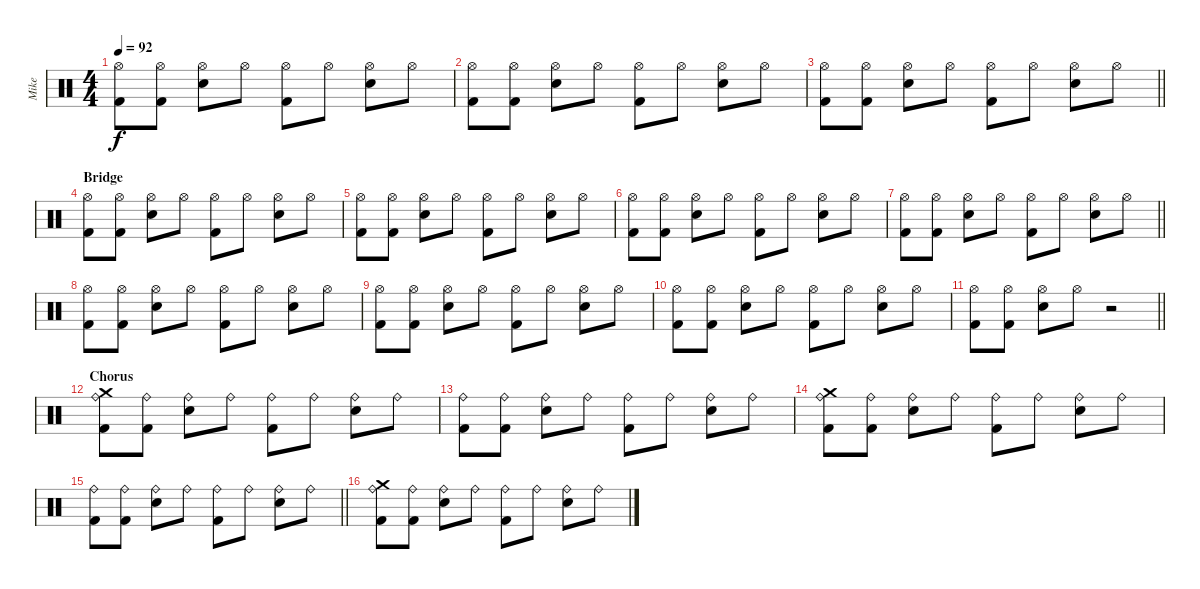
\track ("Mike" "Mike") {instrument percussion}
\staff {score}
\articulation defaults
\ts (4 4)
\tempo 92
\clef neutral
\ks c
("Kick (hit) 2" "Hi-Hat (open)").8{dy f} ("Kick (hit) 2" "Hi-Hat (open)").8 ("Electric Snare (hit)" "Hi-Hat (open)").8 "Hi-Hat (open)".8 ("Kick (hit) 2" "Hi-Hat (open)").8 "Hi-Hat (open)".8 ("Electric Snare (hit)" "Hi-Hat (open)").8 "Hi-Hat (open)".8 |
("Kick (hit) 2" "Hi-Hat (open)").8 ("Kick (hit) 2" "Hi-Hat (open)").8 ("Electric Snare (hit)" "Hi-Hat (open)").8 "Hi-Hat (open)".8 ("Kick (hit) 2" "Hi-Hat (open)").8 "Hi-Hat (open)".8 ("Electric Snare (hit)" "Hi-Hat (open)").8 "Hi-Hat (open)".8 |
\barLineRight lightlight
("Kick (hit) 2" "Hi-Hat (open)").8 ("Kick (hit) 2" "Hi-Hat (open)").8 ("Electric Snare (hit)" "Hi-Hat (open)").8 "Hi-Hat (open)".8 ("Kick (hit) 2" "Hi-Hat (open)").8 "Hi-Hat (open)".8 ("Electric Snare (hit)" "Hi-Hat (open)").8 "Hi-Hat (open)".8 |
\section ("" "Bridge")
("Kick (hit) 2" "Hi-Hat (open)").8 ("Kick (hit) 2" "Hi-Hat (open)").8 ("Electric Snare (hit)" "Hi-Hat (open)").8 "Hi-Hat (open)".8 ("Kick (hit) 2" "Hi-Hat (open)").8 "Hi-Hat (open)".8 ("Electric Snare (hit)" "Hi-Hat (open)").8 "Hi-Hat (open)".8 |
("Kick (hit) 2" "Hi-Hat (open)").8 ("Kick (hit) 2" "Hi-Hat (open)").8 ("Electric Snare (hit)" "Hi-Hat (open)").8 "Hi-Hat (open)".8 ("Kick (hit) 2" "Hi-Hat (open)").8 "Hi-Hat (open)".8 ("Electric Snare (hit)" "Hi-Hat (open)").8 "Hi-Hat (open)".8 |
("Kick (hit) 2" "Hi-Hat (open)").8 ("Kick (hit) 2" "Hi-Hat (open)").8 ("Electric Snare (hit)" "Hi-Hat (open)").8 "Hi-Hat (open)".8 ("Kick (hit) 2" "Hi-Hat (open)").8 "Hi-Hat (open)".8 ("Electric Snare (hit)" "Hi-Hat (open)").8 "Hi-Hat (open)".8 |
\barLineRight lightlight
("Kick (hit) 2" "Hi-Hat (open)").8 ("Kick (hit) 2" "Hi-Hat (open)").8 ("Electric Snare (hit)" "Hi-Hat (open)").8 "Hi-Hat (open)".8 ("Kick (hit) 2" "Hi-Hat (open)").8 "Hi-Hat (open)".8 ("Electric Snare (hit)" "Hi-Hat (open)").8 "Hi-Hat (open)".8 |
("Kick (hit) 2" "Hi-Hat (open)").8 ("Kick (hit) 2" "Hi-Hat (open)").8 ("Electric Snare (hit)" "Hi-Hat (open)").8 "Hi-Hat (open)".8 ("Kick (hit) 2" "Hi-Hat (open)").8 "Hi-Hat (open)".8 ("Electric Snare (hit)" "Hi-Hat (open)").8 "Hi-Hat (open)".8 |
("Kick (hit) 2" "Hi-Hat (open)").8 ("Kick (hit) 2" "Hi-Hat (open)").8 ("Electric Snare (hit)" "Hi-Hat (open)").8 "Hi-Hat (open)".8 ("Kick (hit) 2" "Hi-Hat (open)").8 "Hi-Hat (open)".8 ("Electric Snare (hit)" "Hi-Hat (open)").8 "Hi-Hat (open)".8 |
("Kick (hit) 2" "Hi-Hat (open)").8 ("Kick (hit) 2" "Hi-Hat (open)").8 ("Electric Snare (hit)" "Hi-Hat (open)").8 "Hi-Hat (open)".8 ("Kick (hit) 2" "Hi-Hat (open)").8 "Hi-Hat (open)".8 ("Electric Snare (hit)" "Hi-Hat (open)").8 "Hi-Hat (open)".8 |
\barLineRight lightlight
("Kick (hit) 2" "Hi-Hat (open)").8 ("Kick (hit) 2" "Hi-Hat (open)").8 ("Electric Snare (hit)" "Hi-Hat (open)").8 "Hi-Hat (open)".8 r.2 |
\section ("" "Chorus")
("Kick (hit) 2" "Ride (bell)" "Crash medium (hit)").8 ("Kick (hit) 2" "Ride (bell)").8 ("Electric Snare (hit)" "Ride (bell)").8 "Ride (bell)".8 ("Kick (hit) 2" "Ride (bell)").8 "Ride (bell)".8 ("Electric Snare (hit)" "Ride (bell)").8 "Ride (bell)".8 |
("Kick (hit) 2" "Ride (bell)").8 ("Kick (hit) 2" "Ride (bell)").8 ("Electric Snare (hit)" "Ride (bell)").8 "Ride (bell)".8 ("Kick (hit) 2" "Ride (bell)").8 "Ride (bell)".8 ("Electric Snare (hit)" "Ride (bell)").8 "Ride (bell)".8 |
("Kick (hit) 2" "Ride (bell)" "Crash medium (hit)").8 ("Kick (hit) 2" "Ride (bell)").8 ("Electric Snare (hit)" "Ride (bell)").8 "Ride (bell)".8 ("Kick (hit) 2" "Ride (bell)").8 "Ride (bell)".8 ("Electric Snare (hit)" "Ride (bell)").8 "Ride (bell)".8 |
\barLineRight lightlight
("Kick (hit) 2" "Ride (bell)").8 ("Kick (hit) 2" "Ride (bell)").8 ("Electric Snare (hit)" "Ride (bell)").8 "Ride (bell)".8 ("Kick (hit) 2" "Ride (bell)").8 "Ride (bell)".8 ("Electric Snare (hit)" "Ride (bell)").8 "Ride (bell)".8 |
("Kick (hit) 2" "Ride (bell)" "Crash medium (hit)").8 ("Kick (hit) 2" "Ride (bell)").8 ("Electric Snare (hit)" "Ride (bell)").8 "Ride (bell)".8 ("Kick (hit) 2" "Ride (bell)").8 "Ride (bell)".8 ("Electric Snare (hit)" "Ride (bell)").8 "Ride (bell)".8
